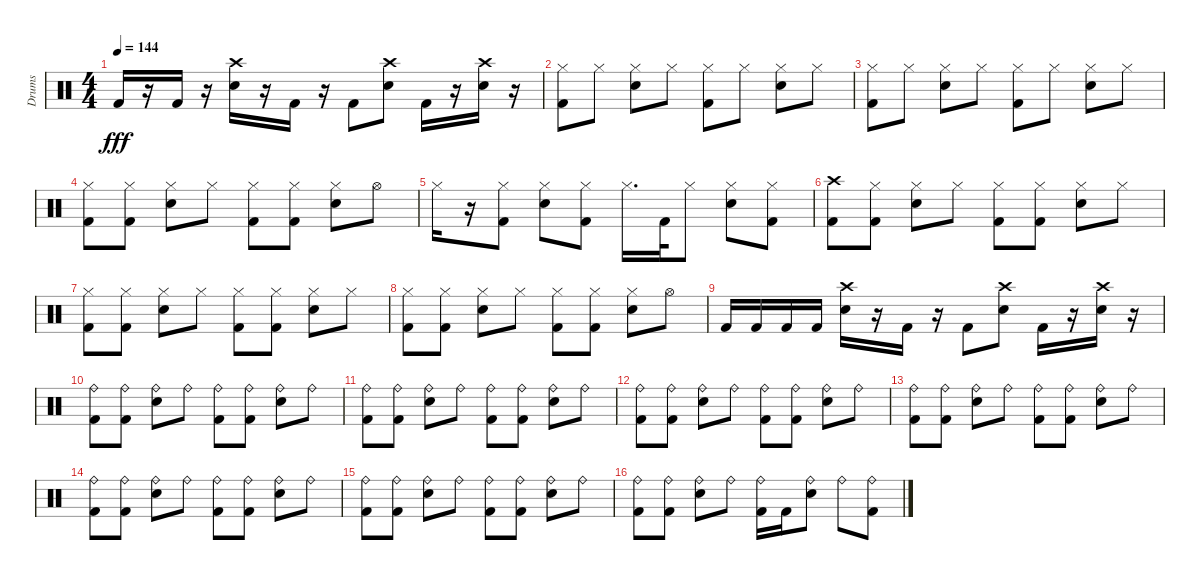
\track ("Drums" "Drums") {instrument percussion}
\staff {score}
\articulation defaults
\ts (4 4)
\tempo 144
\clef neutral
\ks c "Kick (hit) 2".16{dy fff}
r.16 "Kick (hit) 2".16 r.16 ("Snare (hit) 2" "Crash high (hit)").16 r.16 "Kick (hit) 2".16 r.16 "Kick (hit) 2".8 ("Snare (hit) 2" "Crash high (hit)").8 "Kick (hit) 2".16 r.16 ("Snare (hit) 2" "Crash high (hit)").16 r.16 |
("Hi-Hat (closed)" "Kick (hit) 2").8 "Hi-Hat (closed)".8 ("Snare (hit) 2" "Hi-Hat (closed)").8 "Hi-Hat (closed)".8 ("Kick (hit) 2" "Hi-Hat (closed)").8 "Hi-Hat (closed)".8 ("Snare (hit) 2" "Hi-Hat (closed)").8 "Hi-Hat (closed)".8 |
("Kick (hit) 2" "Hi-Hat (closed)").8 "Hi-Hat (closed)".8 ("Snare (hit) 2" "Hi-Hat (closed)").8 "Hi-Hat (closed)".8 ("Kick (hit) 2" "Hi-Hat (closed)").8 "Hi-Hat (closed)".8 ("Snare (hit) 2" "Hi-Hat (closed)").8 "Hi-Hat (closed)".8 |
("Kick (hit) 2" "Hi-Hat (closed)").8 ("Kick (hit) 2" "Hi-Hat (closed)").8 ("Snare (hit) 2" "Hi-Hat (closed)").8 "Hi-Hat (closed)".8 ("Kick (hit) 2" "Hi-Hat (closed)").8 ("Kick (hit) 2" "Hi-Hat (closed)").8 ("Snare (hit) 2" "Hi-Hat (closed)").8 "Hi-Hat (open)".8 |
"Hi-Hat (closed)".16 r.16 ("Kick (hit) 2" "Hi-Hat (closed)").8 ("Snare (hit) 2" "Hi-Hat (closed)").8 ("Hi-Hat (closed)" "Kick (hit) 2").8 "Hi-Hat (closed)".16{d} "Kick (hit) 2".32 "Hi-Hat (closed)".8 ("Snare (hit) 2" "Hi-Hat (closed)").8 ("Hi-Hat (closed)" "Kick (hit) 2").8 |
("Kick (hit) 2" "Crash high (hit)").8 ("Kick (hit) 2" "Hi-Hat (closed)").8 ("Snare (hit) 2" "Hi-Hat (closed)").8 "Hi-Hat (closed)".8 ("Kick (hit) 2" "Hi-Hat (closed)").8 ("Kick (hit) 2" "Hi-Hat (closed)").8 ("Snare (hit) 2" "Hi-Hat (closed)").8 "Hi-Hat (closed)".8 |
("Kick (hit) 2" "Hi-Hat (closed)").8 ("Kick (hit) 2" "Hi-Hat (closed)").8 ("Snare (hit) 2" "Hi-Hat (closed)").8 "Hi-Hat (closed)".8 ("Kick (hit) 2" "Hi-Hat (closed)").8 ("Kick (hit) 2" "Hi-Hat (closed)").8 ("Snare (hit) 2" "Hi-Hat (closed)").8 "Hi-Hat (closed)".8 |
("Hi-Hat (closed)" "Kick (hit) 2").8 ("Kick (hit) 2" "Hi-Hat (closed)").8 ("Snare (hit) 2" "Hi-Hat (closed)").8 "Hi-Hat (closed)".8 ("Kick (hit) 2" "Hi-Hat (closed)").8 ("Kick (hit) 2" "Hi-Hat (closed)").8 ("Snare (hit) 2" "Hi-Hat (closed)").8 "Hi-Hat (open)".8 |
"Kick (hit) 2".16 "Kick (hit) 2".16 "Kick (hit) 2".16 "Kick (hit) 2".16 ("Snare (hit) 2" "Crash high (hit)").16 r.16 "Kick (hit) 2".16 r.16 "Kick (hit) 2".8 ("Snare (hit) 2" "Crash high (hit)").8 "Kick (hit) 2".16 r.16 ("Snare (hit) 2" "Crash high (hit)").16 r.16 |
("Ride (bell)" "Kick (hit) 2").8 ("Kick (hit) 2" "Ride (bell)").8 ("Snare (hit) 2" "Ride (bell)").8 "Ride (bell)".8 ("Kick (hit) 2" "Ride (bell)").8 ("Kick (hit) 2" "Ride (bell)").8 ("Snare (hit) 2" "Ride (bell)").8 "Ride (bell)".8 |
("Ride (bell)" "Kick (hit) 2").8 ("Kick (hit) 2" "Ride (bell)").8 ("Snare (hit) 2" "Ride (bell)").8 "Ride (bell)".8 ("Kick (hit) 2" "Ride (bell)").8 ("Kick (hit) 2" "Ride (bell)").8 ("Snare (hit) 2" "Ride (bell)").8 "Ride (bell)".8 |
("Ride (bell)" "Kick (hit) 2").8 ("Kick (hit) 2" "Ride (bell)").8 ("Snare (hit) 2" "Ride (bell)").8 "Ride (bell)".8 ("Kick (hit) 2" "Ride (bell)").8 ("Kick (hit) 2" "Ride (bell)").8 ("Snare (hit) 2" "Ride (bell)").8 "Ride (bell)".8 |
("Ride (bell)" "Kick (hit) 2").8 ("Kick (hit) 2" "Ride (bell)").8 ("Snare (hit) 2" "Ride (bell)").8 "Ride (bell)".8 ("Kick (hit) 2" "Ride (bell)").8 ("Kick (hit) 2" "Ride (bell)").8 ("Snare (hit) 2" "Ride (bell)").8 "Ride (bell)".8 |
("Ride (bell)" "Kick (hit) 2").8 ("Kick (hit) 2" "Ride (bell)").8 ("Snare (hit) 2" "Ride (bell)").8 "Ride (bell)".8 ("Kick (hit) 2" "Ride (bell)").8 ("Kick (hit) 2" "Ride (bell)").8 ("Snare (hit) 2" "Ride (bell)").8 "Ride (bell)".8 |
("Kick (hit) 2" "Ride (bell)").8 ("Kick (hit) 2" "Ride (bell)").8 ("Snare (hit) 2" "Ride (bell)").8 "Ride (bell)".8 ("Kick (hit) 2" "Ride (bell)").8 ("Kick (hit) 2" "Ride (bell)").8 ("Snare (hit) 2" "Ride (bell)").8 "Ride (bell)".8 |
("Kick (hit) 2" "Ride (bell)").8 ("Kick (hit) 2" "Ride (bell)").8 ("Snare (hit) 2" "Ride (bell)").8 "Ride (bell)".8 ("Ride (bell)" "Kick (hit) 2").16 "Kick (hit) 2".16 ("Ride (bell)" "Snare (hit) 2").8 "Ride (bell)".8 ("Ride (bell)" "Kick (hit) 2").8
